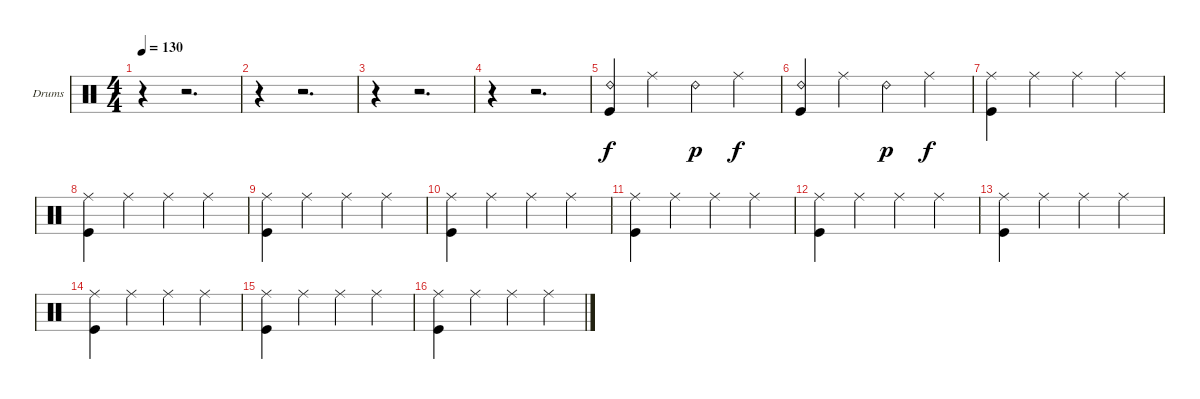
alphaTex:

\bracketExtendMode groupsimilarinstruments
\firstSystemTrackNameOrientation horizontal
\otherSystemsTrackNameOrientation horizontal
\track ("Drumkit" "Drums") {instrument percussion}
\staff {score}
\articulation defaults
\ts (4 4)
\tempo 130
\clef neutral
\ks c
r.4{dy f} r.2{d} |
r.4 r.2{d} |
r.4 r.2{d} |
r.4 r.2{d} |
("Kick (hit)" "Ride (bell) 2").4 "Ride (middle)".4 "Ride (bell) 2".4{dy p} "Ride (middle)".4{dy f} |
("Kick (hit)" "Ride (bell) 2").4 "Ride (middle)".4 "Ride (bell) 2".4{dy p} "Ride (middle)".4{dy f} |
("Kick (hit)" "Ride (middle)").4 "Ride (middle)".4 "Ride (middle)".4 "Ride (middle)".4 |
("Kick (hit)" "Ride (middle)").4 "Ride (middle)".4 "Ride (middle)".4 "Ride (middle)".4 |
("Kick (hit)" "Ride (middle)").4 "Ride (middle)".4 "Ride (middle)".4 "Ride (middle)".4 |
("Kick (hit)" "Ride (middle)").4 "Ride (middle)".4 "Ride (middle)".4 "Ride (middle)".4 |
("Kick (hit)" "Ride (middle)").4 "Ride (middle)".4 "Ride (middle)".4 "Ride (middle)".4 |
("Kick (hit)" "Ride (middle)").4 "Ride (middle)".4 "Ride (middle)".4 "Ride (middle)".4 |
("Kick (hit)" "Ride (middle)").4 "Ride (middle)".4 "Ride (middle)".4 "Ride (middle)".4 |
("Kick (hit)" "Ride (middle)").4 "Ride (middle)".4 "Ride (middle)".4 "Ride (middle)".4 |
("Kick (hit)" "Ride (middle)").4 "Ride (middle)".4 "Ride (middle)".4 "Ride (middle)".4 |
("Kick (hit)" "Ride (middle)").4 "Ride (middle)".4 "Ride (middle)".4 "Ride (middle)".4
